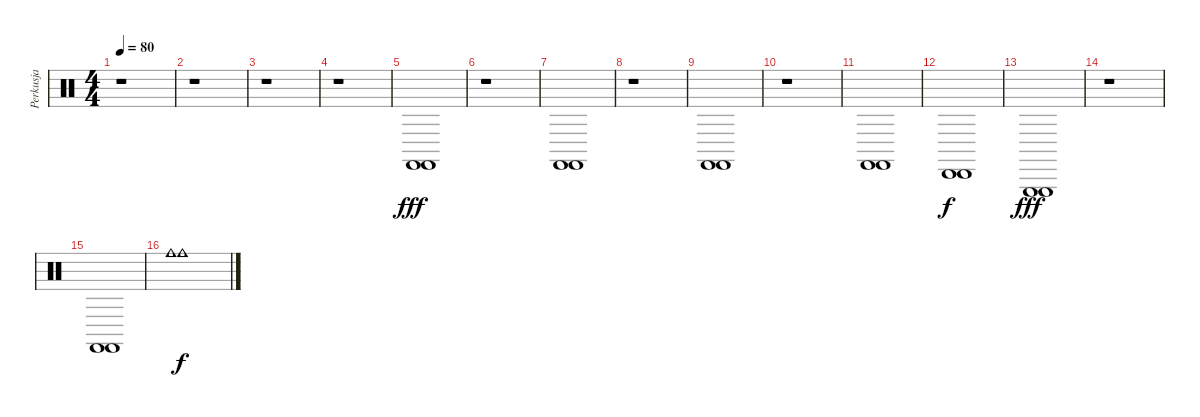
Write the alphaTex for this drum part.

\track ("Perkusja" "Perkusja") {instrument percussion}
\staff {score}
\articulation defaults
\ts (4 4)
\tempo 80
\clef neutral
\ks c
r.1{dy fff} |
r.1 |
r.1 |
r.1 |
("Castanets (hit)" "Castanets (hit)").1 |
r.1 |
("Castanets (hit)" "Castanets (hit)").1 |
r.1 |
("Castanets (hit)" "Castanets (hit)").1 |
r.1 |
("Castanets (hit)" "Castanets (hit)").1 |
("Cabasa (hit)" "Cabasa (hit)").1{dy f} |
("Triangle (hit)" "Triangle (hit)").1{dy fff} |
r.1 |
("Castanets (hit)" "Castanets (hit)").1 |
("Cowbell medium (hit)" "Cowbell medium (hit)").1{dy f}
